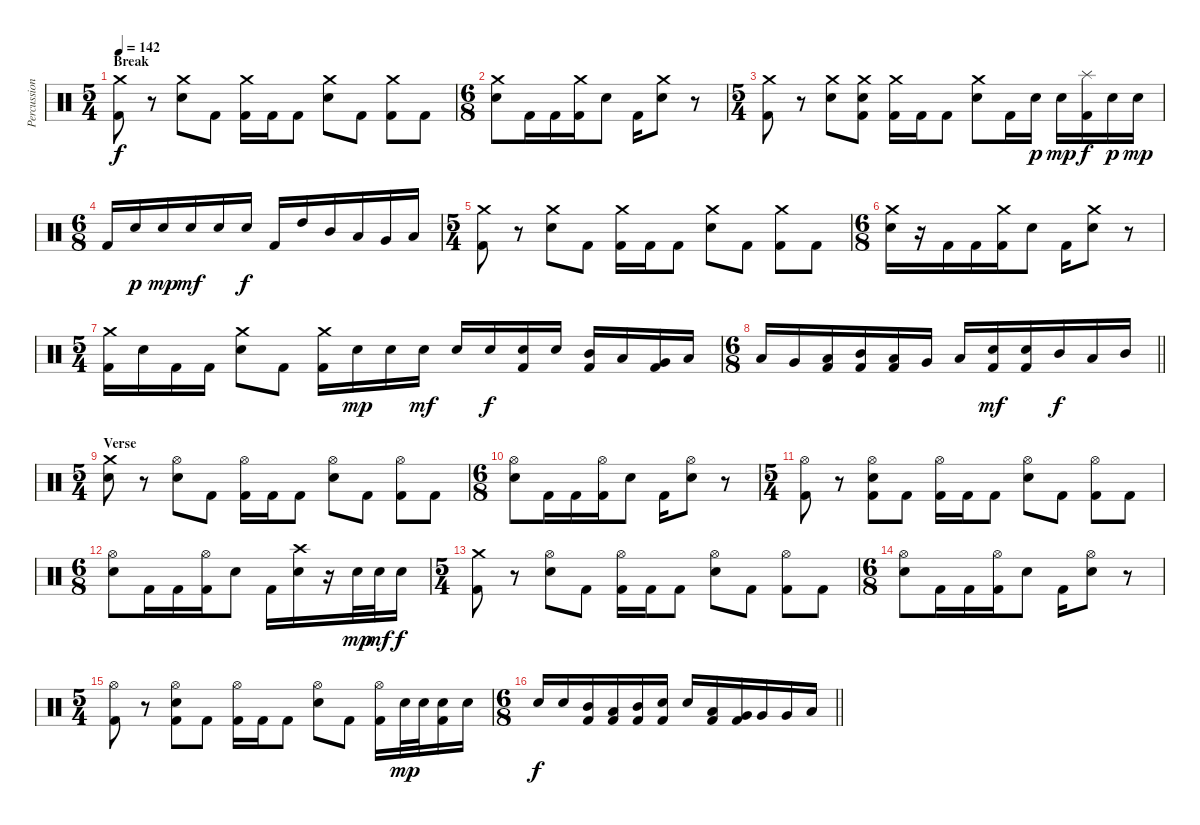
\track ("Percussions" "Percussion") {instrument percussion}
\staff {score}
\articulation defaults
\ts (5 4)
\section ("" "Break")
\tempo 142
\clef neutral
\ks c
("Crash medium (hit)" "Kick (hit) 2").8{dy f} r.8 ("Crash medium (hit)" "Electric Snare (hit)").8 "Kick (hit) 2".8 ("Crash medium (hit)" "Kick (hit) 2").16 "Kick (hit) 2".16 "Kick (hit) 2".8 ("Crash medium (hit)" "Electric Snare (hit)").8 "Kick (hit) 2".8 ("Crash medium (hit)" "Kick (hit) 2").8 "Kick (hit) 2".8 |
\ts (6 8)
("Crash medium (hit)" "Electric Snare (hit)").8 "Kick (hit) 2".16 "Kick (hit) 2".16 ("Crash medium (hit)" "Kick (hit) 2").16 "Electric Snare (hit)".8 "Kick (hit) 2".16 ("Crash medium (hit)" "Electric Snare (hit)").8 r.8 |
\ts (5 4)
("Crash medium (hit)" "Kick (hit) 2").8 r.8 ("Crash medium (hit)" "Electric Snare (hit)").8 ("Crash medium (hit)" "Electric Snare (hit)" "Kick (hit) 2").8 ("Crash medium (hit)" "Kick (hit) 2").16 "Kick (hit) 2".16 "Kick (hit) 2".8 ("Crash medium (hit)" "Electric Snare (hit)").8 "Kick (hit) 2".16 "Electric Snare (hit)".16{dy p} "Electric Snare (hit)".16{dy mp} ("Splash (hit)" "Kick (hit) 2").16{dy f} "Electric Snare (hit)".16{dy p} "Electric Snare (hit)".16{dy mp} |
\ts (6 8)
"Kick (hit) 2".16 "Electric Snare (hit)".16{dy p} "Electric Snare (hit)".16{dy mp} "Electric Snare (hit)".16{dy mf} "Electric Snare (hit)".16 "Electric Snare (hit)".16{dy f} "Kick (hit) 2".16 "High Tom (hit)".16 "Mid Tom (hit)".16 "Low Tom (hit)".16 "Very Low Tom (hit)".16 "Low Floor Tom (hit)".16 |
\ts (5 4)
("Crash medium (hit)" "Kick (hit) 2").8 r.8 ("Crash medium (hit)" "Electric Snare (hit)").8 "Kick (hit) 2".8 ("Crash medium (hit)" "Kick (hit) 2").16 "Kick (hit) 2".16 "Kick (hit) 2".8 ("Crash medium (hit)" "Electric Snare (hit)").8 "Kick (hit) 2".8 ("Crash medium (hit)" "Kick (hit) 2").8 "Kick (hit) 2".8 |
\ts (6 8)
("Crash medium (hit)" "Electric Snare (hit)").16 r.16 "Kick (hit) 2".16 "Kick (hit) 2".16 ("Crash medium (hit)" "Kick (hit) 2").16 "Electric Snare (hit)".8 "Kick (hit) 2".16 ("Crash medium (hit)" "Electric Snare (hit)").8 r.8 |
\ts (5 4)
("Crash medium (hit)" "Kick (hit) 2").16 "Electric Snare (hit)".16 "Kick (hit) 2".16 "Kick (hit) 2".16 ("Crash medium (hit)" "Electric Snare (hit)").8 "Kick (hit) 2".8 ("Crash medium (hit)" "Kick (hit) 2").16 "Electric Snare (hit)".16{dy mp} "Electric Snare (hit)".16 "Electric Snare (hit)".16{dy mf} "Electric Snare (hit)".16 "Electric Snare (hit)".16{dy f} ("Electric Snare (hit)" "Kick (hit) 2").16 "Electric Snare (hit)".16 ("Mid Tom (hit)" "Kick (hit) 2").16 "Low Tom (hit)".16 ("Very Low Tom (hit)" "Kick (hit) 2").16 "Low Floor Tom (hit)".16 |
\ts (6 8)
\barLineRight lightlight "Low Tom (hit)".16 "Very Low Tom (hit)".16
("Low Floor Tom (hit)" "Kick (hit) 2").16 ("Mid Tom (hit)" "Kick (hit) 2").16 ("Low Tom (hit)" "Kick (hit) 2").16 "Very Low Tom (hit)".16 "Low Floor Tom (hit)".16 ("Electric Snare (hit)" "Kick (hit) 2").16{dy mf} ("Electric Snare (hit)" "Kick (hit) 2").16 "Mid Tom (hit)".16{dy f} "Low Tom (hit)".16 "Mid Tom (hit)".16 |
\ts (5 4)
\section ("" "Verse")
("Crash medium (hit)" "Electric Snare (hit)").8 r.8 ("Hi-Hat (open)" "Electric Snare (hit)").8 "Kick (hit) 2".8 ("Hi-Hat (open)" "Kick (hit) 2").16 "Kick (hit) 2".16 "Kick (hit) 2".8 ("Hi-Hat (open)" "Electric Snare (hit)").8 "Kick (hit) 2".8 ("Hi-Hat (open)" "Kick (hit) 2").8 "Kick (hit) 2".8 |
\ts (6 8)
("Hi-Hat (open)" "Electric Snare (hit)").8 "Kick (hit) 2".16 "Kick (hit) 2".16 ("Hi-Hat (open)" "Kick (hit) 2").16 "Electric Snare (hit)".8 "Kick (hit) 2".16 ("Hi-Hat (open)" "Electric Snare (hit)").8 r.8 |
\ts (5 4)
("Hi-Hat (open)" "Kick (hit) 2").8 r.8 ("Hi-Hat (open)" "Electric Snare (hit)" "Kick (hit) 2").8 "Kick (hit) 2".8 ("Hi-Hat (open)" "Kick (hit) 2").16 "Kick (hit) 2".16 "Kick (hit) 2".8 ("Hi-Hat (open)" "Electric Snare (hit)").8 "Kick (hit) 2".8 ("Hi-Hat (open)" "Kick (hit) 2").8 "Kick (hit) 2".8 |
\ts (6 8)
("Hi-Hat (open)" "Electric Snare (hit)").8 "Kick (hit) 2".16 "Kick (hit) 2".16 ("Hi-Hat (open)" "Kick (hit) 2").16 "Electric Snare (hit)".8 "Kick (hit) 2".16 ("Crash high (hit)" "Electric Snare (hit)").16 r.16 "Electric Snare (hit)".32{dy mp} "Electric Snare (hit)".32{dy mf} "Electric Snare (hit)".16{dy f} |
\ts (5 4)
("Crash medium (hit)" "Kick (hit) 2").8 r.8 ("Hi-Hat (open)" "Electric Snare (hit)").8 "Kick (hit) 2".8 ("Hi-Hat (open)" "Kick (hit) 2").16 "Kick (hit) 2".16 "Kick (hit) 2".8 ("Hi-Hat (open)" "Electric Snare (hit)").8 "Kick (hit) 2".8 ("Hi-Hat (open)" "Kick (hit) 2").8 "Kick (hit) 2".8 |
\ts (6 8)
("Hi-Hat (open)" "Electric Snare (hit)").8 "Kick (hit) 2".16 "Kick (hit) 2".16 ("Hi-Hat (open)" "Kick (hit) 2").16 "Electric Snare (hit)".8 "Kick (hit) 2".16 ("Hi-Hat (open)" "Electric Snare (hit)").8 r.8 |
\ts (5 4)
("Hi-Hat (open)" "Kick (hit) 2").8 r.8 ("Hi-Hat (open)" "Electric Snare (hit)" "Kick (hit) 2").8 "Kick (hit) 2".8 ("Hi-Hat (open)" "Kick (hit) 2").16 "Kick (hit) 2".16 "Kick (hit) 2".8 ("Hi-Hat (open)" "Electric Snare (hit)").8 "Kick (hit) 2".8 ("Hi-Hat (open)" "Kick (hit) 2").16 "Electric Snare (hit)".32{dy mp} "Electric Snare (hit)".32 ("Electric Snare (hit)" "Kick (hit) 2").16 "Electric Snare (hit)".16 |
\ts (6 8)
\barLineRight lightlight "Electric Snare (hit)".16{dy f} "Electric Snare (hit)".16
("Mid Tom (hit)" "Kick (hit) 2").16 ("Low Tom (hit)" "Kick (hit) 2").16 ("Mid Tom (hit)" "Kick (hit) 2").16 ("Electric Snare (hit)" "Kick (hit) 2").16 "Electric Snare (hit)".16 ("Low Tom (hit)" "Kick (hit) 2").16 ("Very Low Tom (hit)" "Kick (hit) 2").16 "Very Low Tom (hit)".16 "Very Low Tom (hit)".16 "Low Floor Tom (hit)".16
